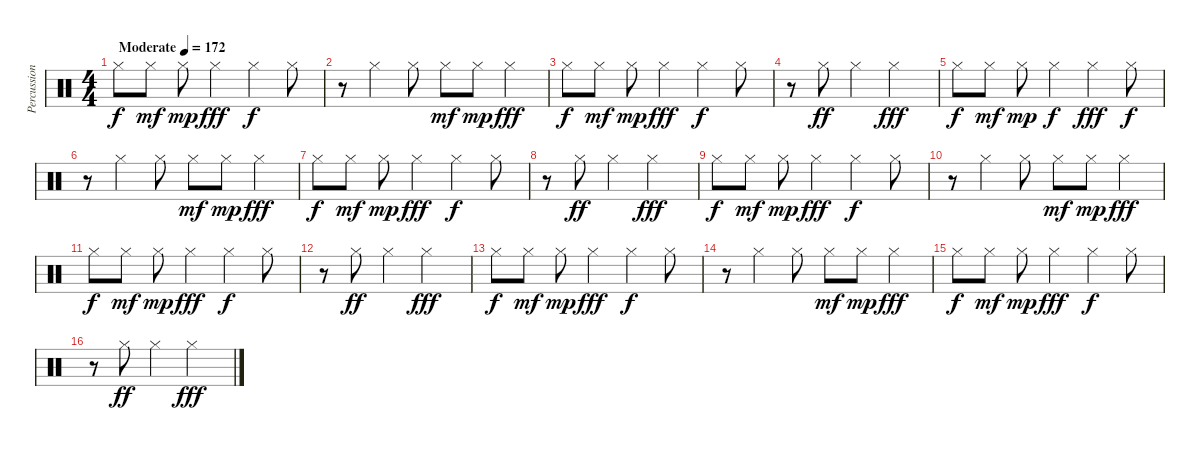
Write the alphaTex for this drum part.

\track ("Percussion" "Percussion") {solo instrument percussion}
\staff {score}
\articulation defaults
\ts (4 4)
\tempo (172 "Moderate")
\clef neutral
\ks c "Hi-Hat (closed)".8{dy f} "Hi-Hat (closed)".8{dy mf} "Hi-Hat (closed)".8{dy mp} "Hi-Hat (closed)".4{dy fff} "Hi-Hat (closed)".4{dy f} "Hi-Hat (closed)".8
|
r.8 "Hi-Hat (closed)".4 "Hi-Hat (closed)".8 "Hi-Hat (closed)".8{dy mf} "Hi-Hat (closed)".8{dy mp} "Hi-Hat (closed)".4{dy fff} |
"Hi-Hat (closed)".8{dy f} "Hi-Hat (closed)".8{dy mf} "Hi-Hat (closed)".8{dy mp} "Hi-Hat (closed)".4{dy fff} "Hi-Hat (closed)".4{dy f} "Hi-Hat (closed)".8 |
r.8 "Hi-Hat (closed)".8{dy ff} "Hi-Hat (closed)".4 "Hi-Hat (closed)".2{dy fff} |
"Hi-Hat (closed)".8{dy f} "Hi-Hat (closed)".8{dy mf} "Hi-Hat (closed)".8{dy mp} "Hi-Hat (closed)".4{dy f} "Hi-Hat (closed)".4{dy fff} "Hi-Hat (closed)".8{dy f} |
r.8 "Hi-Hat (closed)".4 "Hi-Hat (closed)".8 "Hi-Hat (closed)".8{dy mf} "Hi-Hat (closed)".8{dy mp} "Hi-Hat (closed)".4{dy fff} |
"Hi-Hat (closed)".8{dy f} "Hi-Hat (closed)".8{dy mf} "Hi-Hat (closed)".8{dy mp} "Hi-Hat (closed)".4{dy fff} "Hi-Hat (closed)".4{dy f} "Hi-Hat (closed)".8 |
r.8 "Hi-Hat (closed)".8{dy ff} "Hi-Hat (closed)".4 "Hi-Hat (closed)".2{dy fff} |
"Hi-Hat (closed)".8{dy f} "Hi-Hat (closed)".8{dy mf} "Hi-Hat (closed)".8{dy mp} "Hi-Hat (closed)".4{dy fff} "Hi-Hat (closed)".4{dy f} "Hi-Hat (closed)".8 |
r.8 "Hi-Hat (closed)".4 "Hi-Hat (closed)".8 "Hi-Hat (closed)".8{dy mf} "Hi-Hat (closed)".8{dy mp} "Hi-Hat (closed)".4{dy fff} |
"Hi-Hat (closed)".8{dy f} "Hi-Hat (closed)".8{dy mf} "Hi-Hat (closed)".8{dy mp} "Hi-Hat (closed)".4{dy fff} "Hi-Hat (closed)".4{dy f} "Hi-Hat (closed)".8 |
r.8 "Hi-Hat (closed)".8{dy ff} "Hi-Hat (closed)".4 "Hi-Hat (closed)".2{dy fff} |
"Hi-Hat (closed)".8{dy f} "Hi-Hat (closed)".8{dy mf} "Hi-Hat (closed)".8{dy mp} "Hi-Hat (closed)".4{dy fff} "Hi-Hat (closed)".4{dy f} "Hi-Hat (closed)".8 |
r.8 "Hi-Hat (closed)".4 "Hi-Hat (closed)".8 "Hi-Hat (closed)".8{dy mf} "Hi-Hat (closed)".8{dy mp} "Hi-Hat (closed)".4{dy fff} |
"Hi-Hat (closed)".8{dy f} "Hi-Hat (closed)".8{dy mf} "Hi-Hat (closed)".8{dy mp} "Hi-Hat (closed)".4{dy fff} "Hi-Hat (closed)".4{dy f} "Hi-Hat (closed)".8 |
r.8 "Hi-Hat (closed)".8{dy ff} "Hi-Hat (closed)".4 "Hi-Hat (closed)".2{dy fff}
